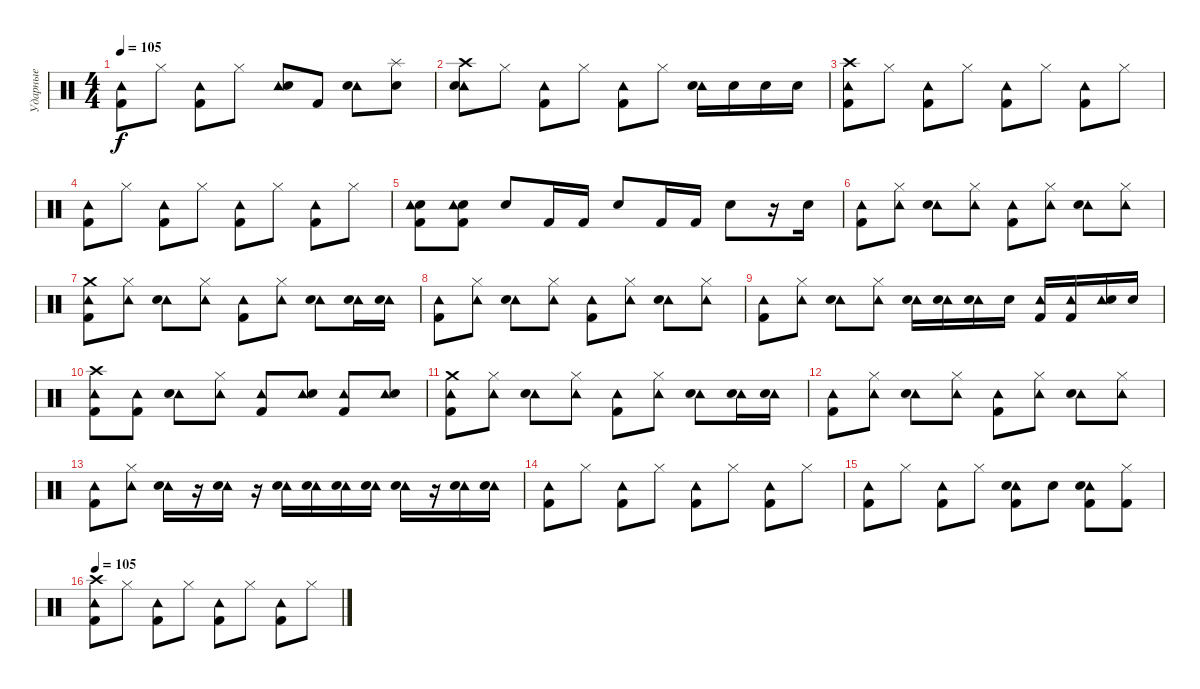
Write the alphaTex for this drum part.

\track ("Ударные" "Ударные") {instrument percussion}
\staff {score}
\articulation defaults
\ts (4 4)
\tempo 105
\clef neutral
\ks c
("Tambourine (hit)" "Kick (hit) 2").8{dy f} "Hi-Hat (closed)".8 ("Tambourine (hit)" "Kick (hit) 2").8 "Hi-Hat (closed)".8 ("Tambourine (hit)" "Electric Snare (hit)").8 "Kick (hit) 2".8 ("Tambourine (hit)" "Electric Snare (hit)").8 ("Splash (hit)" "Electric Snare (hit)").8 |
("Tambourine (hit)" "Crash high (hit)" "Snare (hit) 2").8 "Hi-Hat (closed)".8 ("Tambourine (hit)" "Kick (hit) 2").8 "Hi-Hat (closed)".8 ("Tambourine (hit)" "Kick (hit) 2").8 "Hi-Hat (closed)".8 ("Tambourine (hit)" "Electric Snare (hit)").16 "Electric Snare (hit)".16 "Electric Snare (hit)".16 "Electric Snare (hit)".16 |
("Tambourine (hit)" "Crash high (hit)" "Kick (hit) 2").8 "Hi-Hat (closed)".8 ("Tambourine (hit)" "Kick (hit) 2").8 "Hi-Hat (closed)".8 ("Tambourine (hit)" "Kick (hit) 2").8 "Hi-Hat (closed)".8 ("Tambourine (hit)" "Kick (hit) 2").8 "Hi-Hat (closed)".8 |
("Tambourine (hit)" "Kick (hit) 2").8 "Hi-Hat (closed)".8 ("Tambourine (hit)" "Kick (hit) 2").8 "Hi-Hat (closed)".8 ("Tambourine (hit)" "Kick (hit) 2").8 "Hi-Hat (closed)".8 ("Tambourine (hit)" "Kick (hit) 2").8 "Hi-Hat (closed)".8 |
("Snare (hit) 2" "Kick (hit) 2" "Tambourine (hit)").8 ("Snare (hit) 2" "Kick (hit) 2" "Tambourine (hit)").8 "Electric Snare (hit)".8 "Kick (hit) 2".16 "Kick (hit) 2".16 "Electric Snare (hit)".8 "Kick (hit) 2".16 "Kick (hit) 2".16 "Electric Snare (hit)".8 r.16 "Electric Snare (hit)".16 |
("Tambourine (hit)" "Kick (hit) 2").8 ("Tambourine (hit)" "Hi-Hat (closed)").8 ("Tambourine (hit)" "Snare (hit) 2").8 ("Tambourine (hit)" "Hi-Hat (closed)").8 ("Tambourine (hit)" "Kick (hit) 2").8 ("Tambourine (hit)" "Hi-Hat (closed)").8 ("Tambourine (hit)" "Snare (hit) 2").8 ("Tambourine (hit)" "Hi-Hat (closed)").8 |
("Tambourine (hit)" "Crash medium (hit)" "Kick (hit) 2").8 ("Tambourine (hit)" "Hi-Hat (closed)").8 ("Tambourine (hit)" "Snare (hit) 2").8 ("Tambourine (hit)" "Hi-Hat (closed)").8 ("Tambourine (hit)" "Kick (hit) 2").8 ("Tambourine (hit)" "Hi-Hat (closed)").8 ("Tambourine (hit)" "Snare (hit) 2").8 ("Tambourine (hit)" "Snare (hit) 2").16 ("Tambourine (hit)" "Snare (hit) 2").16 |
("Tambourine (hit)" "Kick (hit) 2").8 ("Tambourine (hit)" "Hi-Hat (closed)").8 ("Tambourine (hit)" "Snare (hit) 2").8 ("Tambourine (hit)" "Hi-Hat (closed)").8 ("Tambourine (hit)" "Kick (hit) 2").8 ("Tambourine (hit)" "Hi-Hat (closed)").8 ("Tambourine (hit)" "Snare (hit) 2").8 ("Tambourine (hit)" "Hi-Hat (closed)").8 |
("Tambourine (hit)" "Kick (hit) 2").8 ("Tambourine (hit)" "Hi-Hat (closed)").8 ("Tambourine (hit)" "Snare (hit) 2").8 ("Tambourine (hit)" "Hi-Hat (closed)").8 ("Tambourine (hit)" "Snare (hit) 2").16 ("Tambourine (hit)" "Snare (hit) 2").16 ("Tambourine (hit)" "Snare (hit) 2").16 "Snare (hit) 2".16 ("Tambourine (hit)" "Kick (hit) 2").16 ("Tambourine (hit)" "Kick (hit) 2").16 ("Tambourine (hit)" "Snare (hit) 2").16 "Snare (hit) 2".16 |
("Tambourine (hit)" "Crash high (hit)" "Kick (hit) 2").8 ("Tambourine (hit)" "Kick (hit) 2").8 ("Tambourine (hit)" "Snare (hit) 2").8 ("Tambourine (hit)" "Hi-Hat (closed)").8 ("Tambourine (hit)" "Kick (hit) 2").8 ("Tambourine (hit)" "Snare (hit) 2").8 ("Tambourine (hit)" "Kick (hit) 2").8 ("Tambourine (hit)" "Snare (hit) 2").8 |
("Tambourine (hit)" "Crash medium (hit)" "Kick (hit) 2").8 ("Tambourine (hit)" "Hi-Hat (closed)").8 ("Tambourine (hit)" "Snare (hit) 2").8 ("Tambourine (hit)" "Hi-Hat (closed)").8 ("Tambourine (hit)" "Kick (hit) 2").8 ("Tambourine (hit)" "Hi-Hat (closed)").8 ("Tambourine (hit)" "Snare (hit) 2").8 ("Tambourine (hit)" "Snare (hit) 2").16 ("Tambourine (hit)" "Snare (hit) 2").16 |
("Tambourine (hit)" "Kick (hit) 2").8 ("Tambourine (hit)" "Hi-Hat (closed)").8 ("Tambourine (hit)" "Snare (hit) 2").8 ("Tambourine (hit)" "Hi-Hat (closed)").8 ("Tambourine (hit)" "Kick (hit) 2").8 ("Tambourine (hit)" "Hi-Hat (closed)").8 ("Tambourine (hit)" "Snare (hit) 2").8 ("Tambourine (hit)" "Hi-Hat (closed)").8 |
("Tambourine (hit)" "Kick (hit) 2").8 ("Tambourine (hit)" "Hi-Hat (closed)").8 ("Tambourine (hit)" "Snare (hit) 2").16 r.16 ("Tambourine (hit)" "Snare (hit) 2").16 r.16 ("Tambourine (hit)" "Electric Snare (hit)").16 ("Tambourine (hit)" "Electric Snare (hit)").16 ("Tambourine (hit)" "Electric Snare (hit)").16 ("Tambourine (hit)" "Electric Snare (hit)").16 ("Tambourine (hit)" "Electric Snare (hit)").16 r.16 ("Tambourine (hit)" "Electric Snare (hit)").16 ("Tambourine (hit)" "Electric Snare (hit)").16 |
("Tambourine (hit)" "Kick (hit) 2").8 "Hi-Hat (closed)".8 ("Tambourine (hit)" "Kick (hit) 2").8 "Hi-Hat (closed)".8 ("Tambourine (hit)" "Kick (hit) 2").8 "Hi-Hat (closed)".8 ("Tambourine (hit)" "Kick (hit) 2").8 "Hi-Hat (closed)".8 |
("Tambourine (hit)" "Kick (hit) 2").8 "Hi-Hat (closed)".8 ("Tambourine (hit)" "Kick (hit) 2").8 "Hi-Hat (closed)".8 ("Tambourine (hit)" "Snare (hit) 2" "Kick (hit) 2").8 "Snare (hit) 2".8 ("Tambourine (hit)" "Electric Snare (hit)" "Kick (hit) 2").8 ("Kick (hit) 2" "Hi-Hat (closed)").8 |
\tempo 105
("Tambourine (hit)" "Crash high (hit)" "Kick (hit) 2").8 "Hi-Hat (closed)".8 ("Tambourine (hit)" "Kick (hit) 2").8 "Hi-Hat (closed)".8 ("Tambourine (hit)" "Kick (hit) 2").8 "Hi-Hat (closed)".8 ("Tambourine (hit)" "Kick (hit) 2").8 "Hi-Hat (closed)".8
